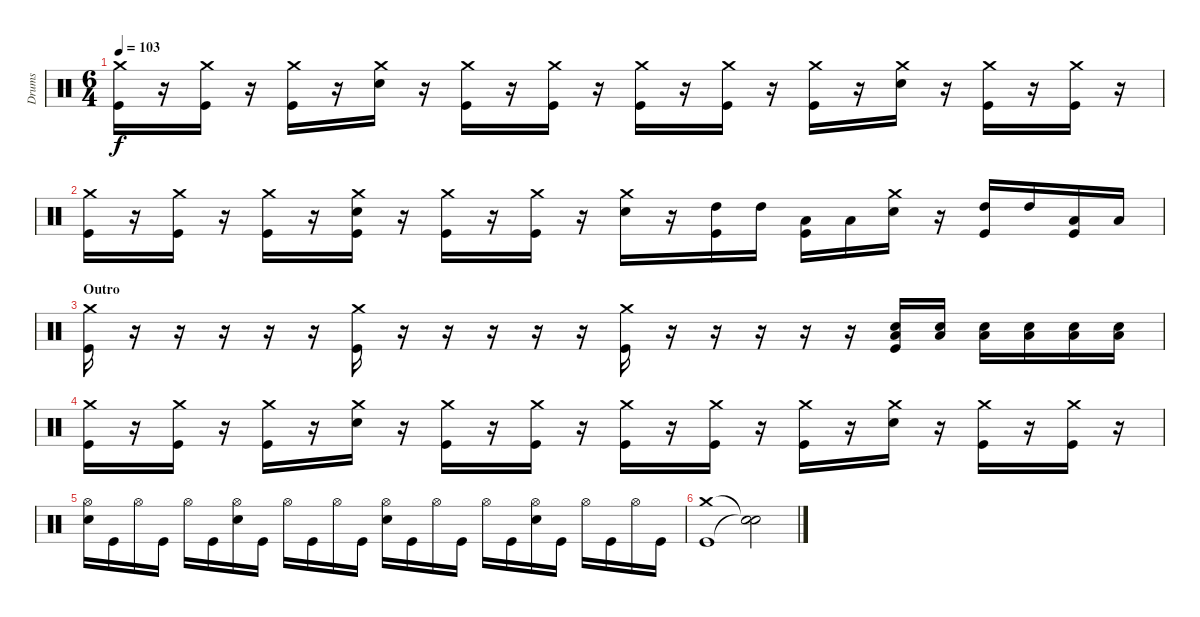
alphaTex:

\track ("Drums" "Drums") {instrument percussion}
\staff {score}
\articulation defaults
\ts (6 4)
\tempo 103
\clef neutral
\ks c
("Crash medium (hit)" "Kick (hit)").16{dy f} r.16 ("Crash medium (hit)" "Kick (hit)").16 r.16 ("Crash medium (hit)" "Kick (hit)").16 r.16 ("Crash medium (hit)" "Electric Snare (hit)").16 r.16 ("Crash medium (hit)" "Kick (hit)").16 r.16 ("Crash medium (hit)" "Kick (hit)").16 r.16 ("Crash medium (hit)" "Kick (hit)").16 r.16 ("Crash medium (hit)" "Kick (hit)").16 r.16 ("Crash medium (hit)" "Kick (hit)").16 r.16 ("Crash medium (hit)" "Electric Snare (hit)").16 r.16 ("Crash medium (hit)" "Kick (hit)").16 r.16 ("Crash medium (hit)" "Kick (hit)").16 r.16 |
("Crash medium (hit)" "Kick (hit)").16 r.16 ("Crash medium (hit)" "Kick (hit)").16 r.16 ("Crash medium (hit)" "Kick (hit)").16 r.16 ("Crash medium (hit)" "Electric Snare (hit)" "Kick (hit)").16 r.16 ("Crash medium (hit)" "Kick (hit)").16 r.16 ("Crash medium (hit)" "Kick (hit)").16 r.16 ("Crash medium (hit)" "Electric Snare (hit)").16 r.16 ("High Tom (hit)" "Kick (hit)").16 "High Tom (hit)".16 ("Low Tom (hit)" "Kick (hit)").16 "Low Tom (hit)".16 ("Crash medium (hit)" "Electric Snare (hit)").16 r.16 ("High Tom (hit)" "Kick (hit)").16 "High Tom (hit)".16 ("Low Tom (hit)" "Kick (hit)").16 "Low Tom (hit)".16 |
\section ("" "Outro")
("Crash medium (hit)" "Kick (hit)").16 r.16 r.16 r.16 r.16 r.16 ("Crash medium (hit)" "Kick (hit)").16 r.16 r.16 r.16 r.16 r.16 ("Crash medium (hit)" "Kick (hit)").16 r.16 r.16 r.16 r.16 r.16 ("Low Tom (hit)" "Electric Snare (hit)" "Kick (hit)").16 ("Low Tom (hit)" "Electric Snare (hit)").16 ("Low Tom (hit)" "Electric Snare (hit)").16 ("Low Tom (hit)" "Electric Snare (hit)").16 ("Low Tom (hit)" "Electric Snare (hit)").16 ("Low Tom (hit)" "Electric Snare (hit)").16 |
("Crash medium (hit)" "Kick (hit)").16 r.16 ("Crash medium (hit)" "Kick (hit)").16 r.16 ("Crash medium (hit)" "Kick (hit)").16 r.16 ("Crash medium (hit)" "Electric Snare (hit)").16 r.16 ("Crash medium (hit)" "Kick (hit)").16 r.16 ("Crash medium (hit)" "Kick (hit)").16 r.16 ("Crash medium (hit)" "Kick (hit)").16 r.16 ("Crash medium (hit)" "Kick (hit)").16 r.16 ("Crash medium (hit)" "Kick (hit)").16 r.16 ("Crash medium (hit)" "Electric Snare (hit)").16 r.16 ("Crash medium (hit)" "Kick (hit)").16 r.16 ("Crash medium (hit)" "Kick (hit)").16 r.16 |
("Hi-Hat (open)" "Electric Snare (hit)").16 "Kick (hit)".16 "Hi-Hat (open)".16 "Kick (hit)".16 "Hi-Hat (open)".16 "Kick (hit)".16 ("Hi-Hat (open)" "Electric Snare (hit)").16 "Kick (hit)".16 "Hi-Hat (open)".16 "Kick (hit)".16 "Hi-Hat (open)".16 "Kick (hit)".16 ("Hi-Hat (open)" "Electric Snare (hit)").16 "Kick (hit)".16 "Hi-Hat (open)".16 "Kick (hit)".16 "Hi-Hat (open)".16 "Kick (hit)".16 ("Hi-Hat (open)" "Electric Snare (hit)").16 "Kick (hit)".16 "Hi-Hat (open)".16 "Kick (hit)".16 "Hi-Hat (open)".16 "Kick (hit)".16 |
("Crash medium (hit)" "Kick (hit)").1 ("Snare (hit)"{t} "Snare (hit)"{t}).2
